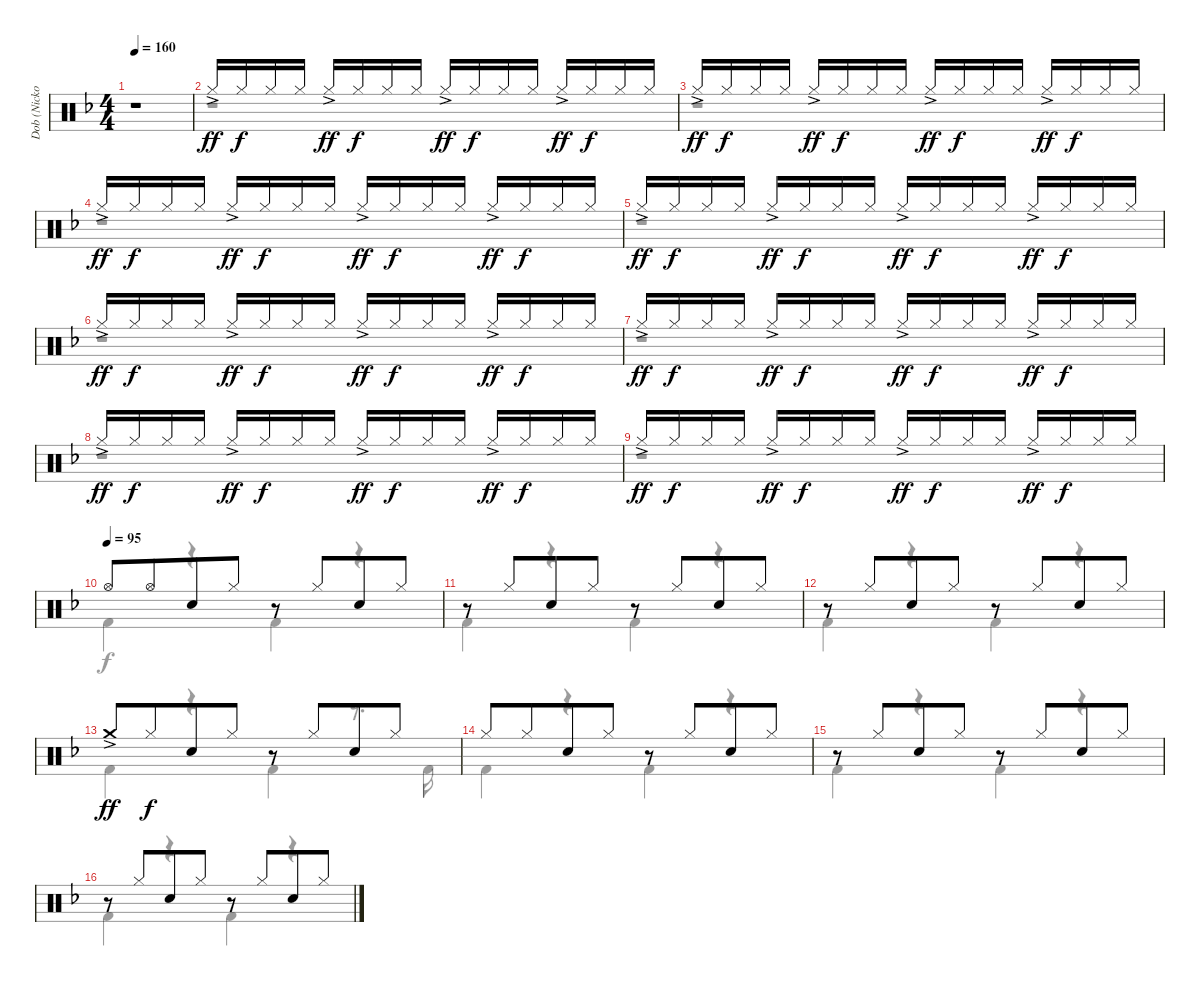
\track ("Dob (Nicko McBrain)" "Dob (Nicko") {instrument percussion}
\staff {score}
\articulation defaults
\voice
\ts (4 4)
\tempo 160
\clef neutral
\ks f
r.1{dy ff} |
"Hi-Hat (closed)"{ac}.16 "Hi-Hat (closed)".16{dy f} "Hi-Hat (closed)".16 "Hi-Hat (closed)".16 "Hi-Hat (closed)"{ac}.16{dy ff} "Hi-Hat (closed)".16{dy f} "Hi-Hat (closed)".16 "Hi-Hat (closed)".16 "Hi-Hat (closed)"{ac}.16{dy ff} "Hi-Hat (closed)".16{dy f} "Hi-Hat (closed)".16 "Hi-Hat (closed)".16 "Hi-Hat (closed)"{ac}.16{dy ff} "Hi-Hat (closed)".16{dy f} "Hi-Hat (closed)".16 "Hi-Hat (closed)".16 |
"Hi-Hat (closed)"{ac}.16{dy ff} "Hi-Hat (closed)".16{dy f} "Hi-Hat (closed)".16 "Hi-Hat (closed)".16 "Hi-Hat (closed)"{ac}.16{dy ff} "Hi-Hat (closed)".16{dy f} "Hi-Hat (closed)".16 "Hi-Hat (closed)".16 "Hi-Hat (closed)"{ac}.16{dy ff} "Hi-Hat (closed)".16{dy f} "Hi-Hat (closed)".16 "Hi-Hat (closed)".16 "Hi-Hat (closed)"{ac}.16{dy ff} "Hi-Hat (closed)".16{dy f} "Hi-Hat (closed)".16 "Hi-Hat (closed)".16 |
"Hi-Hat (closed)"{ac}.16{dy ff} "Hi-Hat (closed)".16{dy f} "Hi-Hat (closed)".16 "Hi-Hat (closed)".16 "Hi-Hat (closed)"{ac}.16{dy ff} "Hi-Hat (closed)".16{dy f} "Hi-Hat (closed)".16 "Hi-Hat (closed)".16 "Hi-Hat (closed)"{ac}.16{dy ff} "Hi-Hat (closed)".16{dy f} "Hi-Hat (closed)".16 "Hi-Hat (closed)".16 "Hi-Hat (closed)"{ac}.16{dy ff} "Hi-Hat (closed)".16{dy f} "Hi-Hat (closed)".16 "Hi-Hat (closed)".16 |
"Hi-Hat (closed)"{ac}.16{dy ff} "Hi-Hat (closed)".16{dy f} "Hi-Hat (closed)".16 "Hi-Hat (closed)".16 "Hi-Hat (closed)"{ac}.16{dy ff} "Hi-Hat (closed)".16{dy f} "Hi-Hat (closed)".16 "Hi-Hat (closed)".16 "Hi-Hat (closed)"{ac}.16{dy ff} "Hi-Hat (closed)".16{dy f} "Hi-Hat (closed)".16 "Hi-Hat (closed)".16 "Hi-Hat (closed)"{ac}.16{dy ff} "Hi-Hat (closed)".16{dy f} "Hi-Hat (closed)".16 "Hi-Hat (closed)".16 |
"Hi-Hat (closed)"{ac}.16{dy ff} "Hi-Hat (closed)".16{dy f} "Hi-Hat (closed)".16 "Hi-Hat (closed)".16 "Hi-Hat (closed)"{ac}.16{dy ff} "Hi-Hat (closed)".16{dy f} "Hi-Hat (closed)".16 "Hi-Hat (closed)".16 "Hi-Hat (closed)"{ac}.16{dy ff} "Hi-Hat (closed)".16{dy f} "Hi-Hat (closed)".16 "Hi-Hat (closed)".16 "Hi-Hat (closed)"{ac}.16{dy ff} "Hi-Hat (closed)".16{dy f} "Hi-Hat (closed)".16 "Hi-Hat (closed)".16 |
"Hi-Hat (closed)"{ac}.16{dy ff} "Hi-Hat (closed)".16{dy f} "Hi-Hat (closed)".16 "Hi-Hat (closed)".16 "Hi-Hat (closed)"{ac}.16{dy ff} "Hi-Hat (closed)".16{dy f} "Hi-Hat (closed)".16 "Hi-Hat (closed)".16 "Hi-Hat (closed)"{ac}.16{dy ff} "Hi-Hat (closed)".16{dy f} "Hi-Hat (closed)".16 "Hi-Hat (closed)".16 "Hi-Hat (closed)"{ac}.16{dy ff} "Hi-Hat (closed)".16{dy f} "Hi-Hat (closed)".16 "Hi-Hat (closed)".16 |
"Hi-Hat (closed)"{ac}.16{dy ff} "Hi-Hat (closed)".16{dy f} "Hi-Hat (closed)".16 "Hi-Hat (closed)".16 "Hi-Hat (closed)"{ac}.16{dy ff} "Hi-Hat (closed)".16{dy f} "Hi-Hat (closed)".16 "Hi-Hat (closed)".16 "Hi-Hat (closed)"{ac}.16{dy ff} "Hi-Hat (closed)".16{dy f} "Hi-Hat (closed)".16 "Hi-Hat (closed)".16 "Hi-Hat (closed)"{ac}.16{dy ff} "Hi-Hat (closed)".16{dy f} "Hi-Hat (closed)".16 "Hi-Hat (closed)".16 |
"Hi-Hat (closed)"{ac}.16{dy ff} "Hi-Hat (closed)".16{dy f} "Hi-Hat (closed)".16 "Hi-Hat (closed)".16 "Hi-Hat (closed)"{ac}.16{dy ff} "Hi-Hat (closed)".16{dy f} "Hi-Hat (closed)".16 "Hi-Hat (closed)".16 "Hi-Hat (closed)"{ac}.16{dy ff} "Hi-Hat (closed)".16{dy f} "Hi-Hat (closed)".16 "Hi-Hat (closed)".16 "Hi-Hat (closed)"{ac}.16{dy ff} "Hi-Hat (closed)".16{dy f} "Hi-Hat (closed)".16 "Hi-Hat (closed)".16 |
\tempo (95)
"Hi-Hat (open)".8{beam Up} "Hi-Hat (open)".8{beam Up beam merge} "Electric Snare (hit)".8{beam Up} "Hi-Hat (closed)".8{beam Up} r.8 "Hi-Hat (closed)".8{beam Up beam merge} "Electric Snare (hit)".8{beam Up} "Hi-Hat (closed)".8{beam Up} |
r.8 "Hi-Hat (closed)".8{beam Up beam merge} "Electric Snare (hit)".8{beam Up} "Hi-Hat (closed)".8{beam Up} r.8 "Hi-Hat (closed)".8{beam Up beam merge} "Electric Snare (hit)".8{beam Up} "Hi-Hat (closed)".8{beam Up} |
r.8 "Hi-Hat (closed)".8{beam Up beam merge} "Electric Snare (hit)".8{beam Up} "Hi-Hat (closed)".8{beam Up} r.8 "Hi-Hat (closed)".8{beam Up beam merge} "Electric Snare (hit)".8{beam Up} "Hi-Hat (closed)".8{beam Up} |
"Crash medium (hit)"{ac}.8{dy ff} "Hi-Hat (closed)".8{dy f beam merge} "Electric Snare (hit)".8 "Hi-Hat (closed)".8 r.8 "Hi-Hat (closed)".8{beam Up beam merge} "Electric Snare (hit)".8{beam Up} "Hi-Hat (closed)".8{beam Up} |
"Hi-Hat (closed)".8{beam Up} "Hi-Hat (closed)".8{beam Up beam merge} "Electric Snare (hit)".8{beam Up} "Hi-Hat (closed)".8{beam Up} r.8 "Hi-Hat (closed)".8{beam Up beam merge} "Electric Snare (hit)".8{beam Up} "Hi-Hat (closed)".8{beam Up} |
r.8 "Hi-Hat (closed)".8{beam Up beam merge} "Electric Snare (hit)".8{beam Up} "Hi-Hat (closed)".8{beam Up} r.8 "Hi-Hat (closed)".8{beam Up beam merge} "Electric Snare (hit)".8{beam Up} "Hi-Hat (closed)".8{beam Up} |
r.8 "Hi-Hat (closed)".8{beam Up beam merge} "Electric Snare (hit)".8{beam Up} "Hi-Hat (closed)".8{beam Up} r.8 "Hi-Hat (closed)".8{beam Up beam merge} "Electric Snare (hit)".8{beam Up} "Hi-Hat (closed)".8{beam Up}
\voice
\clef neutral
\ottava regular
\simile none
\ks f
r.1{dy f} |
r.1 |
r.1 |
r.1 |
r.1 |
r.1 |
r.1 |
r.1 |
r.1 |
"Kick (hit) 2".4 r.4 "Kick (hit) 2".4 r.4 |
"Kick (hit) 2".4 r.4 "Kick (hit) 2".4 r.4 |
"Kick (hit) 2".4 r.4 "Kick (hit) 2".4 r.4 |
"Kick (hit) 2".4 r.4 "Kick (hit) 2".4 r.8{d} "Kick (hit) 2".16 |
"Kick (hit) 2".4 r.4 "Kick (hit) 2".4 r.4 |
"Kick (hit) 2".4 r.4 "Kick (hit) 2".4 r.4 |
"Kick (hit) 2".4 r.4 "Kick (hit) 2".4 r.4
